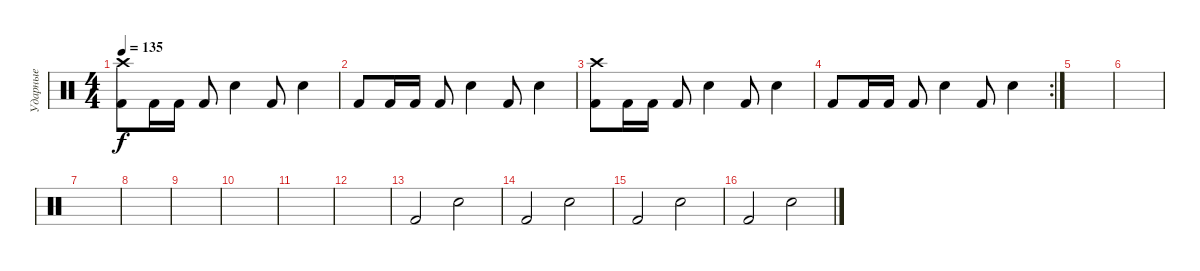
\track ("Ударные" "Ударные") {instrument percussion}
\staff {score}
\articulation defaults
\ts (4 4)
\tempo 135
\clef neutral
\ks c
("Crash high (hit)" "Kick (hit) 2").8{dy f} "Kick (hit) 2".16 "Kick (hit) 2".16 "Kick (hit) 2".8 "Electric Snare (hit)".4 "Kick (hit) 2".8 "Electric Snare (hit)".4 |
"Kick (hit) 2".8 "Kick (hit) 2".16 "Kick (hit) 2".16 "Kick (hit) 2".8 "Electric Snare (hit)".4 "Kick (hit) 2".8 "Electric Snare (hit)".4 |
("Crash high (hit)" "Kick (hit) 2").8 "Kick (hit) 2".16 "Kick (hit) 2".16 "Kick (hit) 2".8 "Electric Snare (hit)".4 "Kick (hit) 2".8 "Electric Snare (hit)".4 |
\rc 2 "Kick (hit) 2".8 "Kick (hit) 2".16 "Kick (hit) 2".16 "Kick (hit) 2".8 "Electric Snare (hit)".4 "Kick (hit) 2".8 "Electric Snare (hit)".4
|
|
|
|
|
|
|
|
|
"Kick (hit) 2".2 "Snare (hit) 2".2 |
"Kick (hit) 2".2 "Snare (hit) 2".2 |
"Kick (hit) 2".2 "Snare (hit) 2".2 |
"Kick (hit) 2".2 "Snare (hit) 2".2
